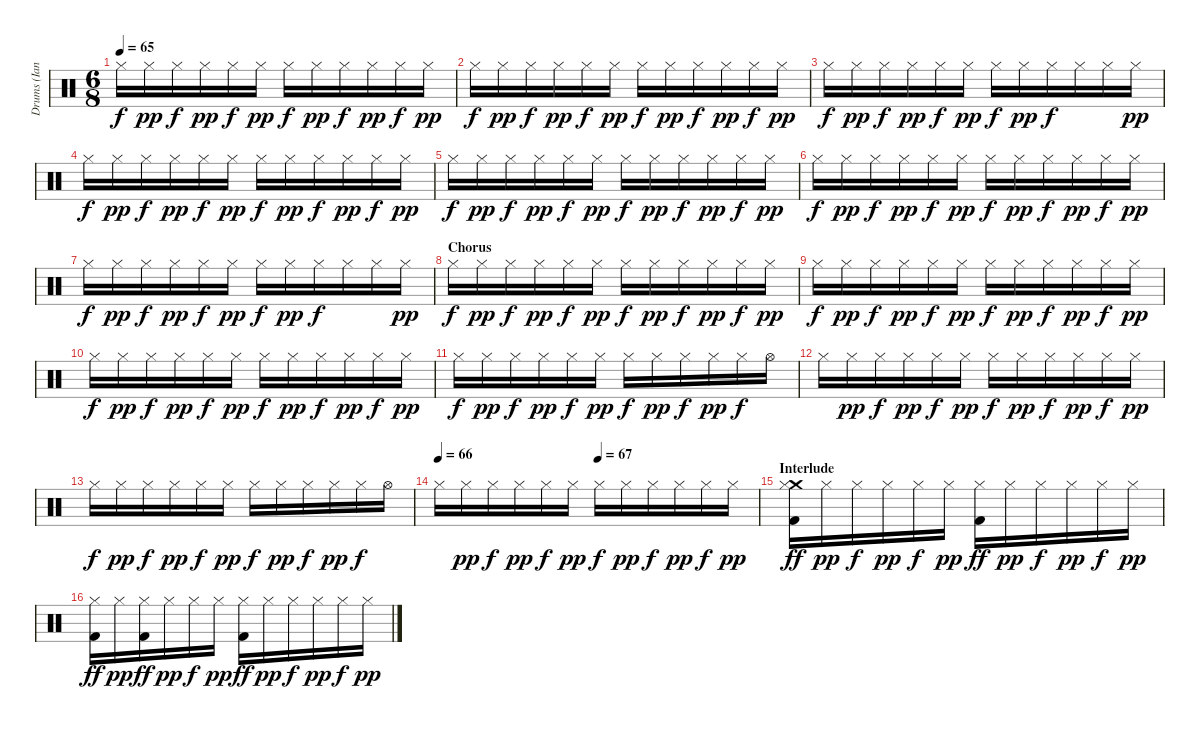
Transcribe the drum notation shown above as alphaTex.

\track ("Drums (Ian Mosley)" "Drums (Ian") {instrument percussion}
\staff {score}
\articulation defaults
\ts (6 8)
\tempo 65
\clef neutral
\ks c "Hi-Hat (closed)".16{dy f} "Hi-Hat (closed)".16{dy pp} "Hi-Hat (closed)".16{dy f} "Hi-Hat (closed)".16{dy pp} "Hi-Hat (closed)".16{dy f} "Hi-Hat (closed)".16{dy pp} "Hi-Hat (closed)".16{dy f} "Hi-Hat (closed)".16{dy pp} "Hi-Hat (closed)".16{dy f} "Hi-Hat (closed)".16{dy pp} "Hi-Hat (closed)".16{dy f} "Hi-Hat (closed)".16{dy pp}
|
"Hi-Hat (closed)".16{dy f} "Hi-Hat (closed)".16{dy pp} "Hi-Hat (closed)".16{dy f} "Hi-Hat (closed)".16{dy pp} "Hi-Hat (closed)".16{dy f} "Hi-Hat (closed)".16{dy pp} "Hi-Hat (closed)".16{dy f} "Hi-Hat (closed)".16{dy pp} "Hi-Hat (closed)".16{dy f} "Hi-Hat (closed)".16{dy pp} "Hi-Hat (closed)".16{dy f} "Hi-Hat (closed)".16{dy pp} |
"Hi-Hat (closed)".16{dy f} "Hi-Hat (closed)".16{dy pp} "Hi-Hat (closed)".16{dy f} "Hi-Hat (closed)".16{dy pp} "Hi-Hat (closed)".16{dy f} "Hi-Hat (closed)".16{dy pp} "Hi-Hat (closed)".16{dy f} "Hi-Hat (closed)".16{dy pp} "Hi-Hat (closed)".16{dy f} "Hi-Hat (closed)".16 "Hi-Hat (closed)".16 "Hi-Hat (closed)".16{dy pp} |
"Hi-Hat (closed)".16{dy f} "Hi-Hat (closed)".16{dy pp} "Hi-Hat (closed)".16{dy f} "Hi-Hat (closed)".16{dy pp} "Hi-Hat (closed)".16{dy f} "Hi-Hat (closed)".16{dy pp} "Hi-Hat (closed)".16{dy f} "Hi-Hat (closed)".16{dy pp} "Hi-Hat (closed)".16{dy f} "Hi-Hat (closed)".16{dy pp} "Hi-Hat (closed)".16{dy f} "Hi-Hat (closed)".16{dy pp} |
"Hi-Hat (closed)".16{dy f} "Hi-Hat (closed)".16{dy pp} "Hi-Hat (closed)".16{dy f} "Hi-Hat (closed)".16{dy pp} "Hi-Hat (closed)".16{dy f} "Hi-Hat (closed)".16{dy pp} "Hi-Hat (closed)".16{dy f} "Hi-Hat (closed)".16{dy pp} "Hi-Hat (closed)".16{dy f} "Hi-Hat (closed)".16{dy pp} "Hi-Hat (closed)".16{dy f} "Hi-Hat (closed)".16{dy pp} |
"Hi-Hat (closed)".16{dy f} "Hi-Hat (closed)".16{dy pp} "Hi-Hat (closed)".16{dy f} "Hi-Hat (closed)".16{dy pp} "Hi-Hat (closed)".16{dy f} "Hi-Hat (closed)".16{dy pp} "Hi-Hat (closed)".16{dy f} "Hi-Hat (closed)".16{dy pp} "Hi-Hat (closed)".16{dy f} "Hi-Hat (closed)".16{dy pp} "Hi-Hat (closed)".16{dy f} "Hi-Hat (closed)".16{dy pp} |
"Hi-Hat (closed)".16{dy f} "Hi-Hat (closed)".16{dy pp} "Hi-Hat (closed)".16{dy f} "Hi-Hat (closed)".16{dy pp} "Hi-Hat (closed)".16{dy f} "Hi-Hat (closed)".16{dy pp} "Hi-Hat (closed)".16{dy f} "Hi-Hat (closed)".16{dy pp} "Hi-Hat (closed)".16{dy f} "Hi-Hat (closed)".16 "Hi-Hat (closed)".16 "Hi-Hat (closed)".16{dy pp} |
\section ("" "Chorus")
"Hi-Hat (closed)".16{dy f} "Hi-Hat (closed)".16{dy pp} "Hi-Hat (closed)".16{dy f} "Hi-Hat (closed)".16{dy pp} "Hi-Hat (closed)".16{dy f} "Hi-Hat (closed)".16{dy pp} "Hi-Hat (closed)".16{dy f} "Hi-Hat (closed)".16{dy pp} "Hi-Hat (closed)".16{dy f} "Hi-Hat (closed)".16{dy pp} "Hi-Hat (closed)".16{dy f} "Hi-Hat (closed)".16{dy pp} |
"Hi-Hat (closed)".16{dy f} "Hi-Hat (closed)".16{dy pp} "Hi-Hat (closed)".16{dy f} "Hi-Hat (closed)".16{dy pp} "Hi-Hat (closed)".16{dy f} "Hi-Hat (closed)".16{dy pp} "Hi-Hat (closed)".16{dy f} "Hi-Hat (closed)".16{dy pp} "Hi-Hat (closed)".16{dy f} "Hi-Hat (closed)".16{dy pp} "Hi-Hat (closed)".16{dy f} "Hi-Hat (closed)".16{dy pp} |
"Hi-Hat (closed)".16{dy f} "Hi-Hat (closed)".16{dy pp} "Hi-Hat (closed)".16{dy f} "Hi-Hat (closed)".16{dy pp} "Hi-Hat (closed)".16{dy f} "Hi-Hat (closed)".16{dy pp} "Hi-Hat (closed)".16{dy f} "Hi-Hat (closed)".16{dy pp} "Hi-Hat (closed)".16{dy f} "Hi-Hat (closed)".16{dy pp} "Hi-Hat (closed)".16{dy f} "Hi-Hat (closed)".16{dy pp} |
"Hi-Hat (closed)".16{dy f} "Hi-Hat (closed)".16{dy pp} "Hi-Hat (closed)".16{dy f} "Hi-Hat (closed)".16{dy pp} "Hi-Hat (closed)".16{dy f} "Hi-Hat (closed)".16{dy pp} "Hi-Hat (closed)".16{dy f} "Hi-Hat (closed)".16{dy pp} "Hi-Hat (closed)".16{dy f} "Hi-Hat (closed)".16{dy pp} "Hi-Hat (closed)".16{dy f} "Hi-Hat (open)".16 |
"Hi-Hat (closed)".16 "Hi-Hat (closed)".16{dy pp} "Hi-Hat (closed)".16{dy f} "Hi-Hat (closed)".16{dy pp} "Hi-Hat (closed)".16{dy f} "Hi-Hat (closed)".16{dy pp} "Hi-Hat (closed)".16{dy f} "Hi-Hat (closed)".16{dy pp} "Hi-Hat (closed)".16{dy f} "Hi-Hat (closed)".16{dy pp} "Hi-Hat (closed)".16{dy f} "Hi-Hat (closed)".16{dy pp} |
"Hi-Hat (closed)".16{dy f} "Hi-Hat (closed)".16{dy pp} "Hi-Hat (closed)".16{dy f} "Hi-Hat (closed)".16{dy pp} "Hi-Hat (closed)".16{dy f} "Hi-Hat (closed)".16{dy pp} "Hi-Hat (closed)".16{dy f} "Hi-Hat (closed)".16{dy pp} "Hi-Hat (closed)".16{dy f} "Hi-Hat (closed)".16{dy pp} "Hi-Hat (closed)".16{dy f} "Hi-Hat (open)".16 |
\tempo 66
\tempo (67 0.5)
"Hi-Hat (closed)".16 "Hi-Hat (closed)".16{dy pp} "Hi-Hat (closed)".16{dy f} "Hi-Hat (closed)".16{dy pp} "Hi-Hat (closed)".16{dy f} "Hi-Hat (closed)".16{dy pp} "Hi-Hat (closed)".16{dy f} "Hi-Hat (closed)".16{dy pp} "Hi-Hat (closed)".16{dy f} "Hi-Hat (closed)".16{dy pp} "Hi-Hat (closed)".16{dy f} "Hi-Hat (closed)".16{dy pp} |
\section ("" "Interlude")
("Crash medium (hit)" "Kick (hit) 2" "Hi-Hat (closed)").16{dy ff} "Hi-Hat (closed)".16{dy pp} "Hi-Hat (closed)".16{dy f} "Hi-Hat (closed)".16{dy pp} "Hi-Hat (closed)".16{dy f} "Hi-Hat (closed)".16{dy pp} ("Kick (hit) 2" "Hi-Hat (closed)").16{dy ff} "Hi-Hat (closed)".16{dy pp} "Hi-Hat (closed)".16{dy f} "Hi-Hat (closed)".16{dy pp} "Hi-Hat (closed)".16{dy f} "Hi-Hat (closed)".16{dy pp} |
("Kick (hit) 2" "Hi-Hat (closed)").16{dy ff} "Hi-Hat (closed)".16{dy pp} ("Kick (hit) 2" "Hi-Hat (closed)").16{dy ff} "Hi-Hat (closed)".16{dy pp} "Hi-Hat (closed)".16{dy f} "Hi-Hat (closed)".16{dy pp} ("Kick (hit) 2" "Hi-Hat (closed)").16{dy ff} "Hi-Hat (closed)".16{dy pp} "Hi-Hat (closed)".16{dy f} "Hi-Hat (closed)".16{dy pp} "Hi-Hat (closed)".16{dy f} "Hi-Hat (closed)".16{dy pp}
